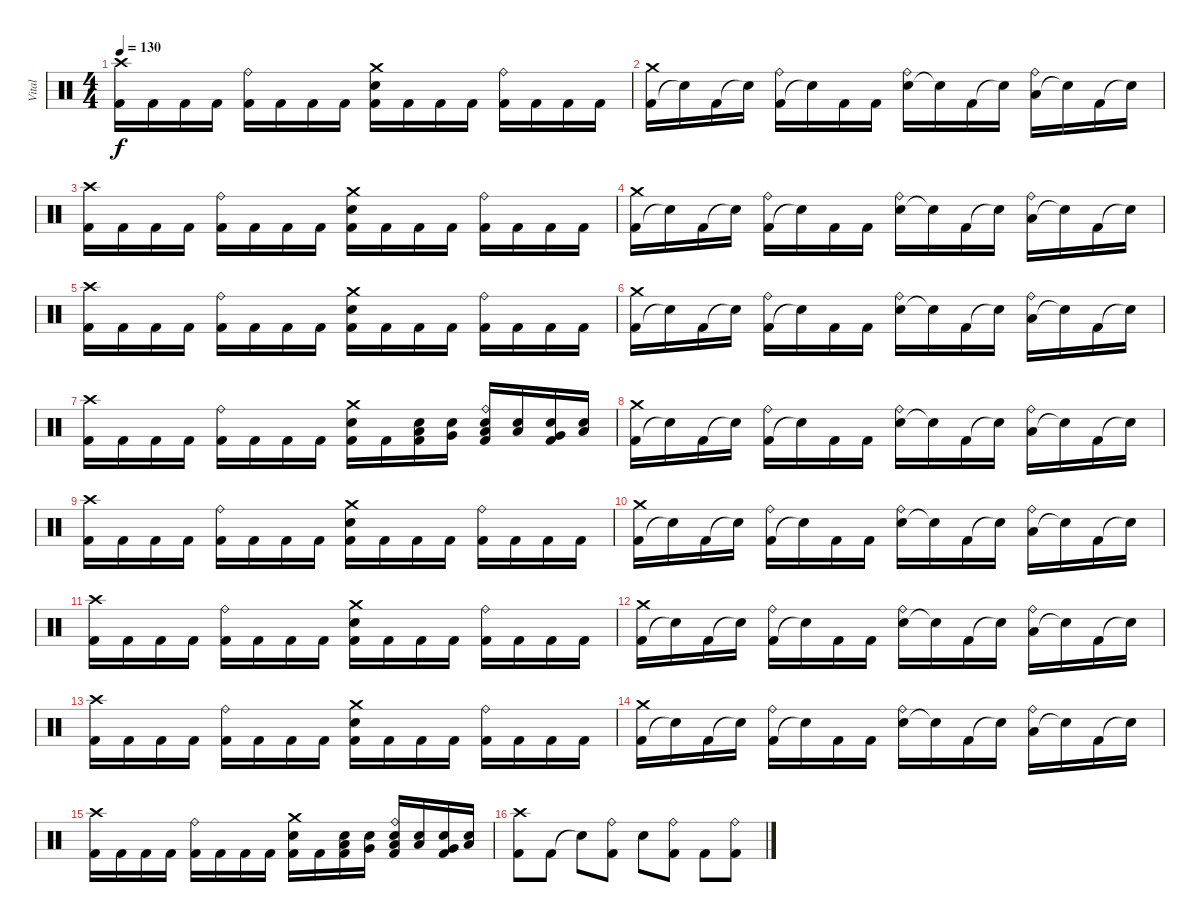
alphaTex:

\track ("Vital" "Vital") {instrument percussion}
\staff {score}
\articulation defaults
\ts (4 4)
\tempo 130
\clef neutral
\ks c
("Kick (hit) 2" "Crash high (hit)").16{dy f} "Kick (hit) 2".16 "Kick (hit) 2".16 "Kick (hit) 2".16 ("Kick (hit) 2" "Ride (bell)").16 "Kick (hit) 2".16 "Kick (hit) 2".16 "Kick (hit) 2".16 ("Kick (hit) 2" "Snare (hit) 2" "Crash medium (hit)").16 "Kick (hit) 2".16 "Kick (hit) 2".16 "Kick (hit) 2".16 ("Kick (hit) 2" "Ride (bell)").16 "Kick (hit) 2".16 "Kick (hit) 2".16 "Kick (hit) 2".16 |
("Kick (hit) 2" "Crash medium (hit)").16 "Snare (hit)"{t}.16 "Kick (hit) 2".16 "Snare (hit)"{t}.16 ("Kick (hit) 2" "Ride (bell)").16 "Snare (hit)"{t}.16 "Kick (hit) 2".16 "Kick (hit) 2".16 ("Snare (hit) 2" "Ride (bell)").16 "Snare (hit)"{t}.16 "Kick (hit) 2".16 "Snare (hit)"{t}.16 ("Low Floor Tom (hit)" "Ride (bell)").16 "Snare (hit)"{t}.16 "Kick (hit) 2".16 "Snare (hit)"{t}.16 |
("Kick (hit) 2" "Crash high (hit)").16 "Kick (hit) 2".16 "Kick (hit) 2".16 "Kick (hit) 2".16 ("Kick (hit) 2" "Ride (bell)").16 "Kick (hit) 2".16 "Kick (hit) 2".16 "Kick (hit) 2".16 ("Kick (hit) 2" "Snare (hit) 2" "Crash medium (hit)").16 "Kick (hit) 2".16 "Kick (hit) 2".16 "Kick (hit) 2".16 ("Kick (hit) 2" "Ride (bell)").16 "Kick (hit) 2".16 "Kick (hit) 2".16 "Kick (hit) 2".16 |
("Kick (hit) 2" "Crash medium (hit)").16 "Snare (hit)"{t}.16 "Kick (hit) 2".16 "Snare (hit)"{t}.16 ("Kick (hit) 2" "Ride (bell)").16 "Snare (hit)"{t}.16 "Kick (hit) 2".16 "Kick (hit) 2".16 ("Snare (hit) 2" "Ride (bell)").16 "Snare (hit)"{t}.16 "Kick (hit) 2".16 "Snare (hit)"{t}.16 ("Low Floor Tom (hit)" "Ride (bell)").16 "Snare (hit)"{t}.16 "Kick (hit) 2".16 "Snare (hit)"{t}.16 |
("Kick (hit) 2" "Crash high (hit)").16 "Kick (hit) 2".16 "Kick (hit) 2".16 "Kick (hit) 2".16 ("Kick (hit) 2" "Ride (bell)").16 "Kick (hit) 2".16 "Kick (hit) 2".16 "Kick (hit) 2".16 ("Kick (hit) 2" "Snare (hit) 2" "Crash medium (hit)").16 "Kick (hit) 2".16 "Kick (hit) 2".16 "Kick (hit) 2".16 ("Kick (hit) 2" "Ride (bell)").16 "Kick (hit) 2".16 "Kick (hit) 2".16 "Kick (hit) 2".16 |
("Kick (hit) 2" "Crash medium (hit)").16 "Snare (hit)"{t}.16 "Kick (hit) 2".16 "Snare (hit)"{t}.16 ("Kick (hit) 2" "Ride (bell)").16 "Snare (hit)"{t}.16 "Kick (hit) 2".16 "Kick (hit) 2".16 ("Snare (hit) 2" "Ride (bell)").16 "Snare (hit)"{t}.16 "Kick (hit) 2".16 "Snare (hit)"{t}.16 ("Low Floor Tom (hit)" "Ride (bell)").16 "Snare (hit)"{t}.16 "Kick (hit) 2".16 "Snare (hit)"{t}.16 |
("Kick (hit) 2" "Crash high (hit)").16 "Kick (hit) 2".16 "Kick (hit) 2".16 "Kick (hit) 2".16 ("Kick (hit) 2" "Ride (bell)").16 "Kick (hit) 2".16 "Kick (hit) 2".16 "Kick (hit) 2".16 ("Kick (hit) 2" "Snare (hit) 2" "Crash medium (hit)").16 "Kick (hit) 2".16 ("Low Tom (hit)" "Kick (hit) 2" "Snare (hit) 2").16 ("Very Low Tom (hit)" "Snare (hit) 2").16 ("Low Tom (hit)" "Kick (hit) 2" "Snare (hit) 2" "Ride (bell)").16 ("Low Floor Tom (hit)" "Snare (hit) 2").16 ("Very Low Tom (hit)" "Kick (hit) 2" "Snare (hit) 2").16 ("Low Floor Tom (hit)" "Snare (hit) 2").16 |
("Kick (hit) 2" "Crash medium (hit)").16 "Snare (hit)"{t}.16 "Kick (hit) 2".16 "Snare (hit)"{t}.16 ("Kick (hit) 2" "Ride (bell)").16 "Snare (hit)"{t}.16 "Kick (hit) 2".16 "Kick (hit) 2".16 ("Snare (hit) 2" "Ride (bell)").16 "Snare (hit)"{t}.16 "Kick (hit) 2".16 "Snare (hit)"{t}.16 ("Low Floor Tom (hit)" "Ride (bell)").16 "Snare (hit)"{t}.16 "Kick (hit) 2".16 "Snare (hit)"{t}.16 |
("Kick (hit) 2" "Crash high (hit)").16 "Kick (hit) 2".16 "Kick (hit) 2".16 "Kick (hit) 2".16 ("Kick (hit) 2" "Ride (bell)").16 "Kick (hit) 2".16 "Kick (hit) 2".16 "Kick (hit) 2".16 ("Kick (hit) 2" "Snare (hit) 2" "Crash medium (hit)").16 "Kick (hit) 2".16 "Kick (hit) 2".16 "Kick (hit) 2".16 ("Kick (hit) 2" "Ride (bell)").16 "Kick (hit) 2".16 "Kick (hit) 2".16 "Kick (hit) 2".16 |
("Kick (hit) 2" "Crash medium (hit)").16 "Snare (hit)"{t}.16 "Kick (hit) 2".16 "Snare (hit)"{t}.16 ("Kick (hit) 2" "Ride (bell)").16 "Snare (hit)"{t}.16 "Kick (hit) 2".16 "Kick (hit) 2".16 ("Snare (hit) 2" "Ride (bell)").16 "Snare (hit)"{t}.16 "Kick (hit) 2".16 "Snare (hit)"{t}.16 ("Low Floor Tom (hit)" "Ride (bell)").16 "Snare (hit)"{t}.16 "Kick (hit) 2".16 "Snare (hit)"{t}.16 |
("Kick (hit) 2" "Crash high (hit)").16 "Kick (hit) 2".16 "Kick (hit) 2".16 "Kick (hit) 2".16 ("Kick (hit) 2" "Ride (bell)").16 "Kick (hit) 2".16 "Kick (hit) 2".16 "Kick (hit) 2".16 ("Kick (hit) 2" "Snare (hit) 2" "Crash medium (hit)").16 "Kick (hit) 2".16 "Kick (hit) 2".16 "Kick (hit) 2".16 ("Kick (hit) 2" "Ride (bell)").16 "Kick (hit) 2".16 "Kick (hit) 2".16 "Kick (hit) 2".16 |
("Kick (hit) 2" "Crash medium (hit)").16 "Snare (hit)"{t}.16 "Kick (hit) 2".16 "Snare (hit)"{t}.16 ("Kick (hit) 2" "Ride (bell)").16 "Snare (hit)"{t}.16 "Kick (hit) 2".16 "Kick (hit) 2".16 ("Snare (hit) 2" "Ride (bell)").16 "Snare (hit)"{t}.16 "Kick (hit) 2".16 "Snare (hit)"{t}.16 ("Low Floor Tom (hit)" "Ride (bell)").16 "Snare (hit)"{t}.16 "Kick (hit) 2".16 "Snare (hit)"{t}.16 |
("Kick (hit) 2" "Crash high (hit)").16 "Kick (hit) 2".16 "Kick (hit) 2".16 "Kick (hit) 2".16 ("Kick (hit) 2" "Ride (bell)").16 "Kick (hit) 2".16 "Kick (hit) 2".16 "Kick (hit) 2".16 ("Kick (hit) 2" "Snare (hit) 2" "Crash medium (hit)").16 "Kick (hit) 2".16 "Kick (hit) 2".16 "Kick (hit) 2".16 ("Kick (hit) 2" "Ride (bell)").16 "Kick (hit) 2".16 "Kick (hit) 2".16 "Kick (hit) 2".16 |
("Kick (hit) 2" "Crash medium (hit)").16 "Snare (hit)"{t}.16 "Kick (hit) 2".16 "Snare (hit)"{t}.16 ("Kick (hit) 2" "Ride (bell)").16 "Snare (hit)"{t}.16 "Kick (hit) 2".16 "Kick (hit) 2".16 ("Snare (hit) 2" "Ride (bell)").16 "Snare (hit)"{t}.16 "Kick (hit) 2".16 "Snare (hit)"{t}.16 ("Low Floor Tom (hit)" "Ride (bell)").16 "Snare (hit)"{t}.16 "Kick (hit) 2".16 "Snare (hit)"{t}.16 |
("Kick (hit) 2" "Crash high (hit)").16 "Kick (hit) 2".16 "Kick (hit) 2".16 "Kick (hit) 2".16 ("Kick (hit) 2" "Ride (bell)").16 "Kick (hit) 2".16 "Kick (hit) 2".16 "Kick (hit) 2".16 ("Kick (hit) 2" "Snare (hit) 2" "Crash medium (hit)").16 "Kick (hit) 2".16 ("Low Tom (hit)" "Kick (hit) 2" "Snare (hit) 2").16 ("Very Low Tom (hit)" "Snare (hit) 2").16 ("Low Tom (hit)" "Kick (hit) 2" "Snare (hit) 2" "Ride (bell)").16 ("Low Floor Tom (hit)" "Snare (hit) 2").16 ("Very Low Tom (hit)" "Kick (hit) 2" "Snare (hit) 2").16 ("Low Floor Tom (hit)" "Snare (hit) 2").16 |
("Kick (hit) 2" "Crash high (hit)").8 "Kick (hit) 2".8 "Snare (hit)"{t}.8 ("Kick (hit) 2" "Ride (bell)").8 "Snare (hit) 2".8 ("Kick (hit) 2" "Ride (bell)").8 "Kick (hit) 2".8 ("Kick (hit) 2" "Ride (bell)").8
